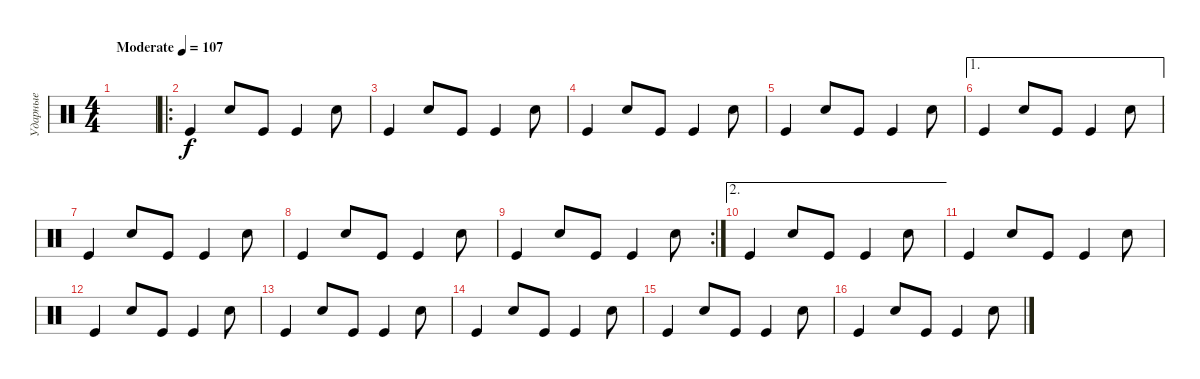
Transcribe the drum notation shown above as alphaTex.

\track ("Ударные" "Ударные") {instrument percussion}
\staff {score}
\articulation defaults
\ts (4 4)
\tempo (107 "Moderate")
\clef neutral
\ks c
|
\ro "Kick (hit)".4 "Snare (hit) 2".8 "Kick (hit)".8 "Kick (hit)".4 "Snare (hit) 2".8
|
"Kick (hit)".4 "Snare (hit) 2".8 "Kick (hit)".8 "Kick (hit)".4 "Snare (hit) 2".8 |
"Kick (hit)".4 "Snare (hit) 2".8 "Kick (hit)".8 "Kick (hit)".4 "Snare (hit) 2".8 |
"Kick (hit)".4 "Snare (hit) 2".8 "Kick (hit)".8 "Kick (hit)".4 "Snare (hit) 2".8 |
\ae 1 "Kick (hit)".4 "Snare (hit) 2".8 "Kick (hit)".8 "Kick (hit)".4 "Snare (hit) 2".8
|
"Kick (hit)".4 "Snare (hit) 2".8 "Kick (hit)".8 "Kick (hit)".4 "Snare (hit) 2".8 |
"Kick (hit)".4 "Snare (hit) 2".8 "Kick (hit)".8 "Kick (hit)".4 "Snare (hit) 2".8 |
\rc 2 "Kick (hit)".4 "Snare (hit) 2".8 "Kick (hit)".8 "Kick (hit)".4 "Snare (hit) 2".8
|
\ae 2 "Kick (hit)".4 "Snare (hit) 2".8 "Kick (hit)".8 "Kick (hit)".4 "Snare (hit) 2".8
|
"Kick (hit)".4 "Snare (hit) 2".8 "Kick (hit)".8 "Kick (hit)".4 "Snare (hit) 2".8 |
"Kick (hit)".4 "Snare (hit) 2".8 "Kick (hit)".8 "Kick (hit)".4 "Snare (hit) 2".8 |
"Kick (hit)".4 "Snare (hit) 2".8 "Kick (hit)".8 "Kick (hit)".4 "Snare (hit) 2".8 |
"Kick (hit)".4 "Snare (hit) 2".8 "Kick (hit)".8 "Kick (hit)".4 "Snare (hit) 2".8 |
"Kick (hit)".4 "Snare (hit) 2".8 "Kick (hit)".8 "Kick (hit)".4 "Snare (hit) 2".8 |
"Kick (hit)".4 "Snare (hit) 2".8 "Kick (hit)".8 "Kick (hit)".4 "Snare (hit) 2".8
